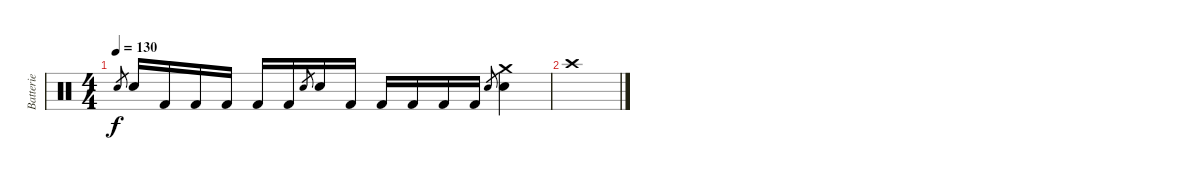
\track ("Batterie" "Batterie") {instrument percussion}
\staff {score}
\articulation defaults
\ts (4 4)
\tempo 130
\clef neutral
\ks c "Snare (hit) 2".8{gr dy f} "Snare (hit) 2".16 "Kick (hit) 2".16 "Kick (hit) 2".16 "Kick (hit) 2".16 "Kick (hit) 2".16 "Kick (hit) 2".16 "Snare (hit) 2".8{gr} "Snare (hit) 2".16 "Kick (hit) 2".16 "Kick (hit) 2".16 "Kick (hit) 2".16 "Kick (hit) 2".16 "Kick (hit) 2".16 "Snare (hit) 2".8{gr}
("Crash medium (hit)" "Snare (hit) 2").4 |
"Crash high (hit)".1
